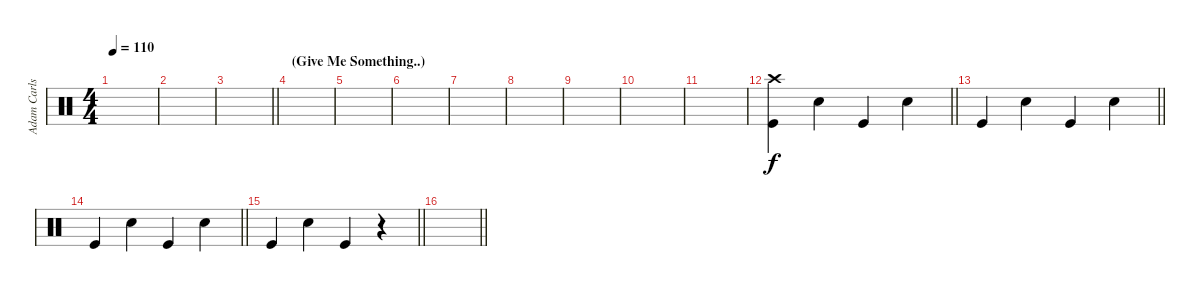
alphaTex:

\track ("Adam Carlson(Electric Drums)" "Adam Carls") {instrument percussion}
\staff {score}
\articulation defaults
\ts (4 4)
\tempo 110
\clef neutral
\ks c
|
|
\barLineRight lightlight
|
\section ("" "(Give Me Something..)")
|
|
|
|
|
|
|
|
\barLineRight lightlight
("Crash high (hit)" "Kick (hit)").4 "Hand Clap (hit)".4 "Kick (hit)".4 "Hand Clap (hit)".4 |
\barLineRight lightlight "Kick (hit)".4 "Hand Clap (hit)".4 "Kick (hit)".4 "Hand Clap (hit)".4
|
\barLineRight lightlight "Kick (hit)".4 "Hand Clap (hit)".4 "Kick (hit)".4 "Hand Clap (hit)".4
|
\barLineRight lightlight "Kick (hit)".4 "Hand Clap (hit)".4 "Kick (hit)".4
r.4 |
\barLineRight lightlight
